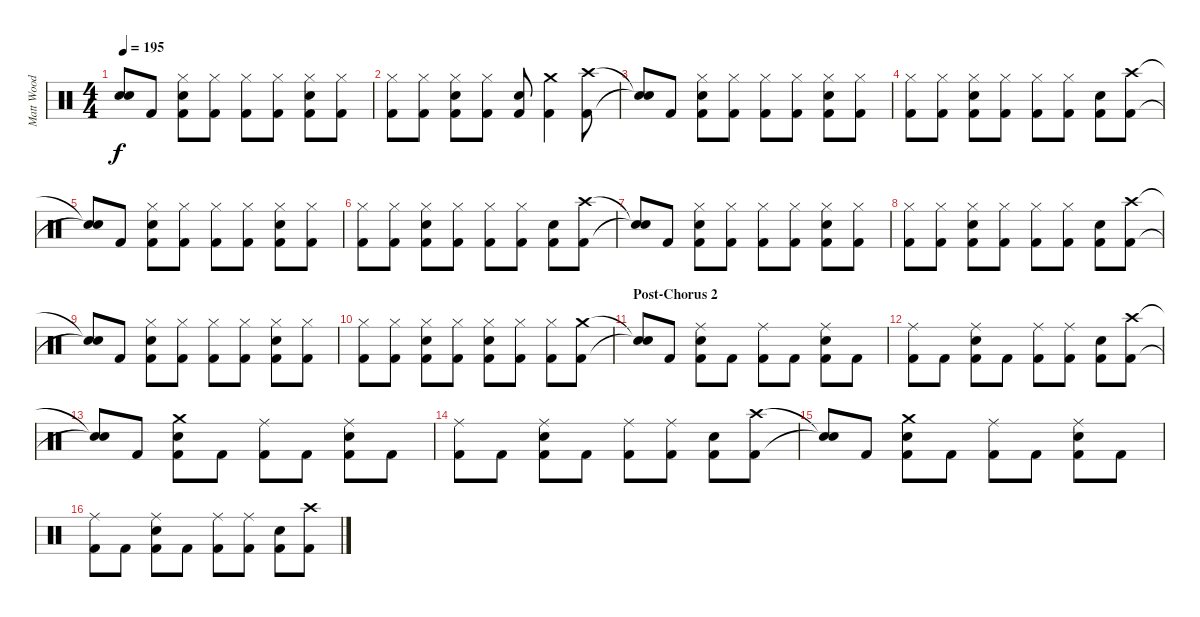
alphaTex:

\track ("Matt Wood" "Matt Wood") {instrument percussion}
\staff {score}
\articulation defaults
\ts (4 4)
\tempo 195
\clef neutral
\ks c
("Snare (hit)"{t} "Snare (hit)"{t}).8{dy f} "Kick (hit) 2".8 ("Hi-Hat (closed)" "Snare (hit) 2" "Kick (hit) 2").8 ("Hi-Hat (closed)" "Kick (hit) 2").8 ("Hi-Hat (closed)" "Kick (hit) 2").8 ("Hi-Hat (closed)" "Kick (hit) 2").8 ("Hi-Hat (closed)" "Snare (hit) 2" "Kick (hit) 2").8 ("Hi-Hat (closed)" "Kick (hit) 2").8 |
("Hi-Hat (closed)" "Kick (hit) 2").8 ("Hi-Hat (closed)" "Kick (hit) 2").8 ("Hi-Hat (closed)" "Snare (hit) 2" "Kick (hit) 2").8 ("Hi-Hat (closed)" "Kick (hit) 2").8 ("Snare (hit) 2" "Kick (hit) 2").8 ("Crash medium (hit)" "Kick (hit) 2").4 ("Crash high (hit)" "Kick (hit) 2").8 |
("Snare (hit)"{t} "Snare (hit)"{t}).8 "Kick (hit) 2".8 ("Hi-Hat (closed)" "Snare (hit) 2" "Kick (hit) 2").8 ("Hi-Hat (closed)" "Kick (hit) 2").8 ("Hi-Hat (closed)" "Kick (hit) 2").8 ("Hi-Hat (closed)" "Kick (hit) 2").8 ("Hi-Hat (closed)" "Snare (hit) 2" "Kick (hit) 2").8 ("Hi-Hat (closed)" "Kick (hit) 2").8 |
("Hi-Hat (closed)" "Kick (hit) 2").8 ("Hi-Hat (closed)" "Kick (hit) 2").8 ("Hi-Hat (closed)" "Snare (hit) 2" "Kick (hit) 2").8 ("Hi-Hat (closed)" "Kick (hit) 2").8 ("Hi-Hat (closed)" "Kick (hit) 2").8 ("Hi-Hat (closed)" "Kick (hit) 2").8 ("Snare (hit) 2" "Kick (hit) 2").8 ("Crash high (hit)" "Kick (hit) 2").8 |
("Snare (hit)"{t} "Snare (hit)"{t}).8 "Kick (hit) 2".8 ("Hi-Hat (closed)" "Snare (hit) 2" "Kick (hit) 2").8 ("Hi-Hat (closed)" "Kick (hit) 2").8 ("Hi-Hat (closed)" "Kick (hit) 2").8 ("Hi-Hat (closed)" "Kick (hit) 2").8 ("Hi-Hat (closed)" "Snare (hit) 2" "Kick (hit) 2").8 ("Hi-Hat (closed)" "Kick (hit) 2").8 |
("Hi-Hat (closed)" "Kick (hit) 2").8 ("Hi-Hat (closed)" "Kick (hit) 2").8 ("Hi-Hat (closed)" "Snare (hit) 2" "Kick (hit) 2").8 ("Hi-Hat (closed)" "Kick (hit) 2").8 ("Hi-Hat (closed)" "Kick (hit) 2").8 ("Hi-Hat (closed)" "Kick (hit) 2").8 ("Snare (hit) 2" "Kick (hit) 2").8 ("Crash high (hit)" "Kick (hit) 2").8 |
("Snare (hit)"{t} "Snare (hit)"{t}).8 "Kick (hit) 2".8 ("Hi-Hat (closed)" "Snare (hit) 2" "Kick (hit) 2").8 ("Hi-Hat (closed)" "Kick (hit) 2").8 ("Hi-Hat (closed)" "Kick (hit) 2").8 ("Hi-Hat (closed)" "Kick (hit) 2").8 ("Hi-Hat (closed)" "Snare (hit) 2" "Kick (hit) 2").8 ("Hi-Hat (closed)" "Kick (hit) 2").8 |
("Hi-Hat (closed)" "Kick (hit) 2").8 ("Hi-Hat (closed)" "Kick (hit) 2").8 ("Hi-Hat (closed)" "Snare (hit) 2" "Kick (hit) 2").8 ("Hi-Hat (closed)" "Kick (hit) 2").8 ("Hi-Hat (closed)" "Kick (hit) 2").8 ("Hi-Hat (closed)" "Kick (hit) 2").8 ("Snare (hit) 2" "Kick (hit) 2").8 ("Crash high (hit)" "Kick (hit) 2").8 |
("Snare (hit)"{t} "Snare (hit)"{t}).8 "Kick (hit) 2".8 ("Hi-Hat (closed)" "Snare (hit) 2" "Kick (hit) 2").8 ("Hi-Hat (closed)" "Kick (hit) 2").8 ("Hi-Hat (closed)" "Kick (hit) 2").8 ("Hi-Hat (closed)" "Kick (hit) 2").8 ("Hi-Hat (closed)" "Snare (hit) 2" "Kick (hit) 2").8 ("Hi-Hat (closed)" "Kick (hit) 2").8 |
("Hi-Hat (closed)" "Kick (hit) 2").8 ("Hi-Hat (closed)" "Kick (hit) 2").8 ("Hi-Hat (closed)" "Snare (hit) 2" "Kick (hit) 2").8 ("Hi-Hat (closed)" "Kick (hit) 2").8 ("Hi-Hat (closed)" "Snare (hit) 2" "Kick (hit) 2").8 ("Hi-Hat (closed)" "Kick (hit) 2").8 ("Hi-Hat (closed)" "Kick (hit) 2").8 ("Crash medium (hit)" "Kick (hit) 2").8 |
\section ("" "Post-Chorus 2")
("Snare (hit)"{t} "Snare (hit)"{t}).8 "Kick (hit) 2".8 ("Ride (middle)" "Snare (hit) 2" "Kick (hit) 2").8 "Kick (hit) 2".8 ("Ride (middle)" "Kick (hit) 2").8 "Kick (hit) 2".8 ("Ride (middle)" "Snare (hit) 2" "Kick (hit) 2").8 "Kick (hit) 2".8 |
("Ride (middle)" "Kick (hit) 2").8 "Kick (hit) 2".8 ("Ride (middle)" "Snare (hit) 2" "Kick (hit) 2").8 "Kick (hit) 2".8 ("Ride (middle)" "Kick (hit) 2").8 ("Ride (middle)" "Kick (hit) 2").8 ("Snare (hit) 2" "Kick (hit) 2").8 ("Crash high (hit)" "Kick (hit) 2").8 |
("Snare (hit)"{t} "Snare (hit)"{t}).8 "Kick (hit) 2".8 ("Crash medium (hit)" "Snare (hit) 2" "Kick (hit) 2").8 "Kick (hit) 2".8 ("Ride (middle)" "Kick (hit) 2").8 "Kick (hit) 2".8 ("Ride (middle)" "Snare (hit) 2" "Kick (hit) 2").8 "Kick (hit) 2".8 |
("Ride (middle)" "Kick (hit) 2").8 "Kick (hit) 2".8 ("Ride (middle)" "Snare (hit) 2" "Kick (hit) 2").8 "Kick (hit) 2".8 ("Ride (middle)" "Kick (hit) 2").8 ("Ride (middle)" "Kick (hit) 2").8 ("Snare (hit) 2" "Kick (hit) 2").8 ("Crash high (hit)" "Kick (hit) 2").8 |
("Snare (hit)"{t} "Snare (hit)"{t}).8 "Kick (hit) 2".8 ("Crash medium (hit)" "Snare (hit) 2" "Kick (hit) 2").8 "Kick (hit) 2".8 ("Ride (middle)" "Kick (hit) 2").8 "Kick (hit) 2".8 ("Ride (middle)" "Snare (hit) 2" "Kick (hit) 2").8 "Kick (hit) 2".8 |
("Ride (middle)" "Kick (hit) 2").8 "Kick (hit) 2".8 ("Ride (middle)" "Snare (hit) 2" "Kick (hit) 2").8 "Kick (hit) 2".8 ("Ride (middle)" "Kick (hit) 2").8 ("Ride (middle)" "Kick (hit) 2").8 ("Snare (hit) 2" "Kick (hit) 2").8 ("Crash high (hit)" "Kick (hit) 2").8
